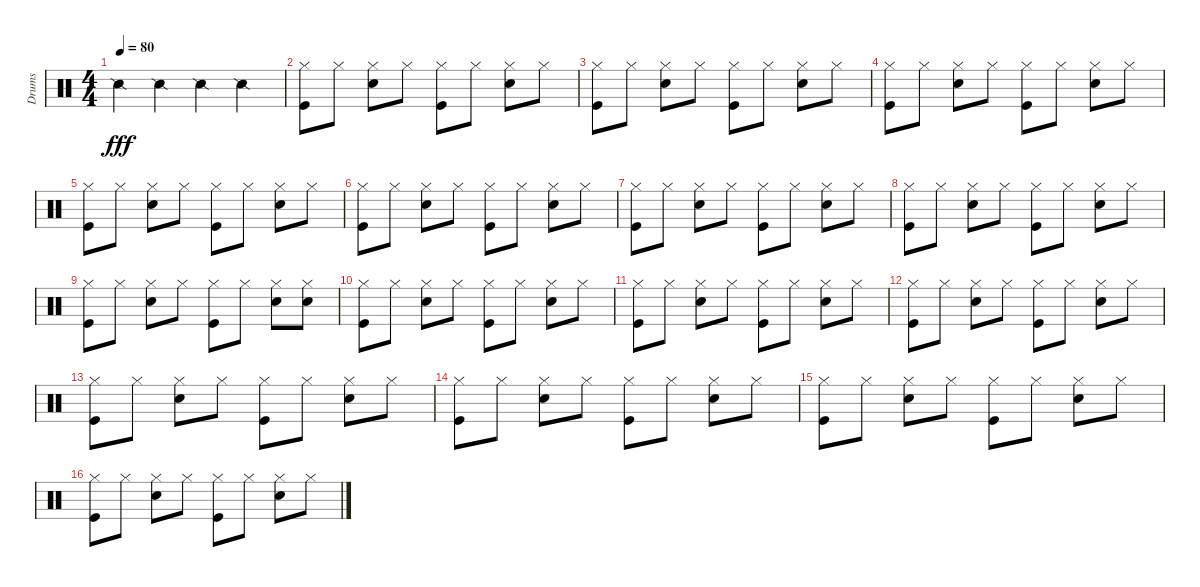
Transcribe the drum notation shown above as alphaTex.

\track ("Drums" "Drums") {instrument percussion}
\staff {score}
\articulation defaults
\ts (4 4)
\tempo 80
\clef neutral
\ks c "Snare (side stick) 2".4{dy fff} "Snare (side stick) 2".4 "Snare (side stick) 2".4 "Snare (side stick) 2".4
|
("Hi-Hat (closed)" "Kick (hit)").8 "Hi-Hat (closed)".8 ("Hi-Hat (closed)" "Snare (hit) 2").8 "Hi-Hat (closed)".8 ("Hi-Hat (closed)" "Kick (hit)").8 "Hi-Hat (closed)".8 ("Hi-Hat (closed)" "Snare (hit) 2").8 "Hi-Hat (closed)".8 |
("Hi-Hat (closed)" "Kick (hit)").8 "Hi-Hat (closed)".8 ("Hi-Hat (closed)" "Snare (hit) 2").8 "Hi-Hat (closed)".8 ("Hi-Hat (closed)" "Kick (hit)").8 "Hi-Hat (closed)".8 ("Hi-Hat (closed)" "Snare (hit) 2").8 "Hi-Hat (closed)".8 |
("Hi-Hat (closed)" "Kick (hit)").8 "Hi-Hat (closed)".8 ("Hi-Hat (closed)" "Snare (hit) 2").8 "Hi-Hat (closed)".8 ("Hi-Hat (closed)" "Kick (hit)").8 "Hi-Hat (closed)".8 ("Hi-Hat (closed)" "Snare (hit) 2").8 "Hi-Hat (closed)".8 |
("Hi-Hat (closed)" "Kick (hit)").8 "Hi-Hat (closed)".8 ("Hi-Hat (closed)" "Snare (hit) 2").8 "Hi-Hat (closed)".8 ("Hi-Hat (closed)" "Kick (hit)").8 "Hi-Hat (closed)".8 ("Hi-Hat (closed)" "Snare (hit) 2").8 "Hi-Hat (closed)".8 |
("Hi-Hat (closed)" "Kick (hit)").8 "Hi-Hat (closed)".8 ("Hi-Hat (closed)" "Snare (hit) 2").8 "Hi-Hat (closed)".8 ("Hi-Hat (closed)" "Kick (hit)").8 "Hi-Hat (closed)".8 ("Hi-Hat (closed)" "Snare (hit) 2").8 "Hi-Hat (closed)".8 |
("Hi-Hat (closed)" "Kick (hit)").8 "Hi-Hat (closed)".8 ("Hi-Hat (closed)" "Snare (hit) 2").8 "Hi-Hat (closed)".8 ("Hi-Hat (closed)" "Kick (hit)").8 "Hi-Hat (closed)".8 ("Hi-Hat (closed)" "Snare (hit) 2").8 "Hi-Hat (closed)".8 |
("Hi-Hat (closed)" "Kick (hit)").8 "Hi-Hat (closed)".8 ("Hi-Hat (closed)" "Snare (hit) 2").8 "Hi-Hat (closed)".8 ("Hi-Hat (closed)" "Kick (hit)").8 "Hi-Hat (closed)".8 ("Hi-Hat (closed)" "Snare (hit) 2").8 "Hi-Hat (closed)".8 |
("Hi-Hat (closed)" "Kick (hit)").8 "Hi-Hat (closed)".8 ("Hi-Hat (closed)" "Snare (hit) 2").8 "Hi-Hat (closed)".8 ("Hi-Hat (closed)" "Kick (hit)").8 "Hi-Hat (closed)".8 ("Hi-Hat (closed)" "Snare (hit) 2").8 ("Hi-Hat (closed)" "Snare (hit) 2").8 |
("Hi-Hat (closed)" "Kick (hit)").8 "Hi-Hat (closed)".8 ("Hi-Hat (closed)" "Snare (hit) 2").8 "Hi-Hat (closed)".8 ("Hi-Hat (closed)" "Kick (hit)").8 "Hi-Hat (closed)".8 ("Hi-Hat (closed)" "Snare (hit) 2").8 "Hi-Hat (closed)".8 |
("Hi-Hat (closed)" "Kick (hit)").8 "Hi-Hat (closed)".8 ("Hi-Hat (closed)" "Snare (hit) 2").8 "Hi-Hat (closed)".8 ("Hi-Hat (closed)" "Kick (hit)").8 "Hi-Hat (closed)".8 ("Hi-Hat (closed)" "Snare (hit) 2").8 "Hi-Hat (closed)".8 |
("Hi-Hat (closed)" "Kick (hit)").8 "Hi-Hat (closed)".8 ("Hi-Hat (closed)" "Snare (hit) 2").8 "Hi-Hat (closed)".8 ("Hi-Hat (closed)" "Kick (hit)").8 "Hi-Hat (closed)".8 ("Hi-Hat (closed)" "Snare (hit) 2").8 "Hi-Hat (closed)".8 |
("Hi-Hat (closed)" "Kick (hit)").8 "Hi-Hat (closed)".8 ("Hi-Hat (closed)" "Snare (hit) 2").8 "Hi-Hat (closed)".8 ("Hi-Hat (closed)" "Kick (hit)").8 "Hi-Hat (closed)".8 ("Hi-Hat (closed)" "Snare (hit) 2").8 "Hi-Hat (closed)".8 |
("Hi-Hat (closed)" "Kick (hit)").8 "Hi-Hat (closed)".8 ("Hi-Hat (closed)" "Snare (hit) 2").8 "Hi-Hat (closed)".8 ("Hi-Hat (closed)" "Kick (hit)").8 "Hi-Hat (closed)".8 ("Hi-Hat (closed)" "Snare (hit) 2").8 "Hi-Hat (closed)".8 |
("Hi-Hat (closed)" "Kick (hit)").8 "Hi-Hat (closed)".8 ("Hi-Hat (closed)" "Snare (hit) 2").8 "Hi-Hat (closed)".8 ("Hi-Hat (closed)" "Kick (hit)").8 "Hi-Hat (closed)".8 ("Hi-Hat (closed)" "Snare (hit) 2").8 "Hi-Hat (closed)".8 |
("Hi-Hat (closed)" "Kick (hit)").8 "Hi-Hat (closed)".8 ("Hi-Hat (closed)" "Snare (hit) 2").8 "Hi-Hat (closed)".8 ("Hi-Hat (closed)" "Kick (hit)").8 "Hi-Hat (closed)".8 ("Hi-Hat (closed)" "Snare (hit) 2").8 "Hi-Hat (closed)".8
